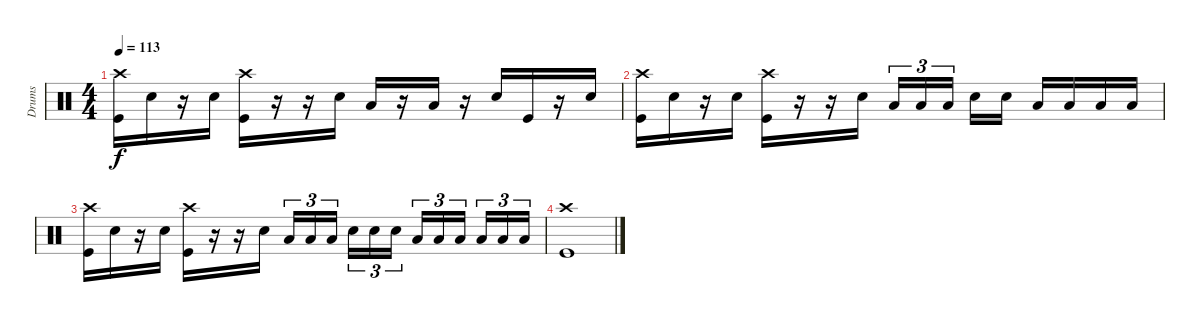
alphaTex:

\track ("Drums" "Drums") {instrument percussion}
\staff {score}
\articulation defaults
\ts (4 4)
\tempo 113
\clef neutral
\ks c
("Crash high (hit)" "Kick (hit)").16{dy f} "Electric Snare (hit)".16 r.16 "Electric Snare (hit)".16 ("Crash high (hit)" "Kick (hit)").16 r.16 r.16 "Electric Snare (hit)".16 "Low Tom (hit)".16 r.16 "Low Tom (hit)".16 r.16 "Electric Snare (hit)".16 "Kick (hit)".16 r.16 "Electric Snare (hit)".16 |
("Crash high (hit)" "Kick (hit)").16 "Electric Snare (hit)".16 r.16 "Electric Snare (hit)".16 ("Crash high (hit)" "Kick (hit)").16 r.16 r.16 "Electric Snare (hit)".16 "Low Tom (hit)".16{tu (3 2)} "Low Tom (hit)".16{tu (3 2)} "Low Tom (hit)".16{tu (3 2)} "Electric Snare (hit)".16 "Electric Snare (hit)".16 "Low Tom (hit)".16 "Low Tom (hit)".16 "Low Tom (hit)".16 "Low Tom (hit)".16 |
("Crash high (hit)" "Kick (hit)").16 "Electric Snare (hit)".16 r.16 "Electric Snare (hit)".16 ("Crash high (hit)" "Kick (hit)").16 r.16 r.16 "Electric Snare (hit)".16 "Low Tom (hit)".16{tu (3 2)} "Low Tom (hit)".16{tu (3 2)} "Low Tom (hit)".16{tu (3 2)} "Electric Snare (hit)".16{tu (3 2)} "Electric Snare (hit)".16{tu (3 2)} "Electric Snare (hit)".16{tu (3 2)} "Low Tom (hit)".16{tu (3 2)} "Low Tom (hit)".16{tu (3 2)} "Low Tom (hit)".16{tu (3 2)} "Low Tom (hit)".16{tu (3 2)} "Low Tom (hit)".16{tu (3 2)} "Low Tom (hit)".16{tu (3 2)} |
("Crash high (hit)" "Kick (hit)").1
